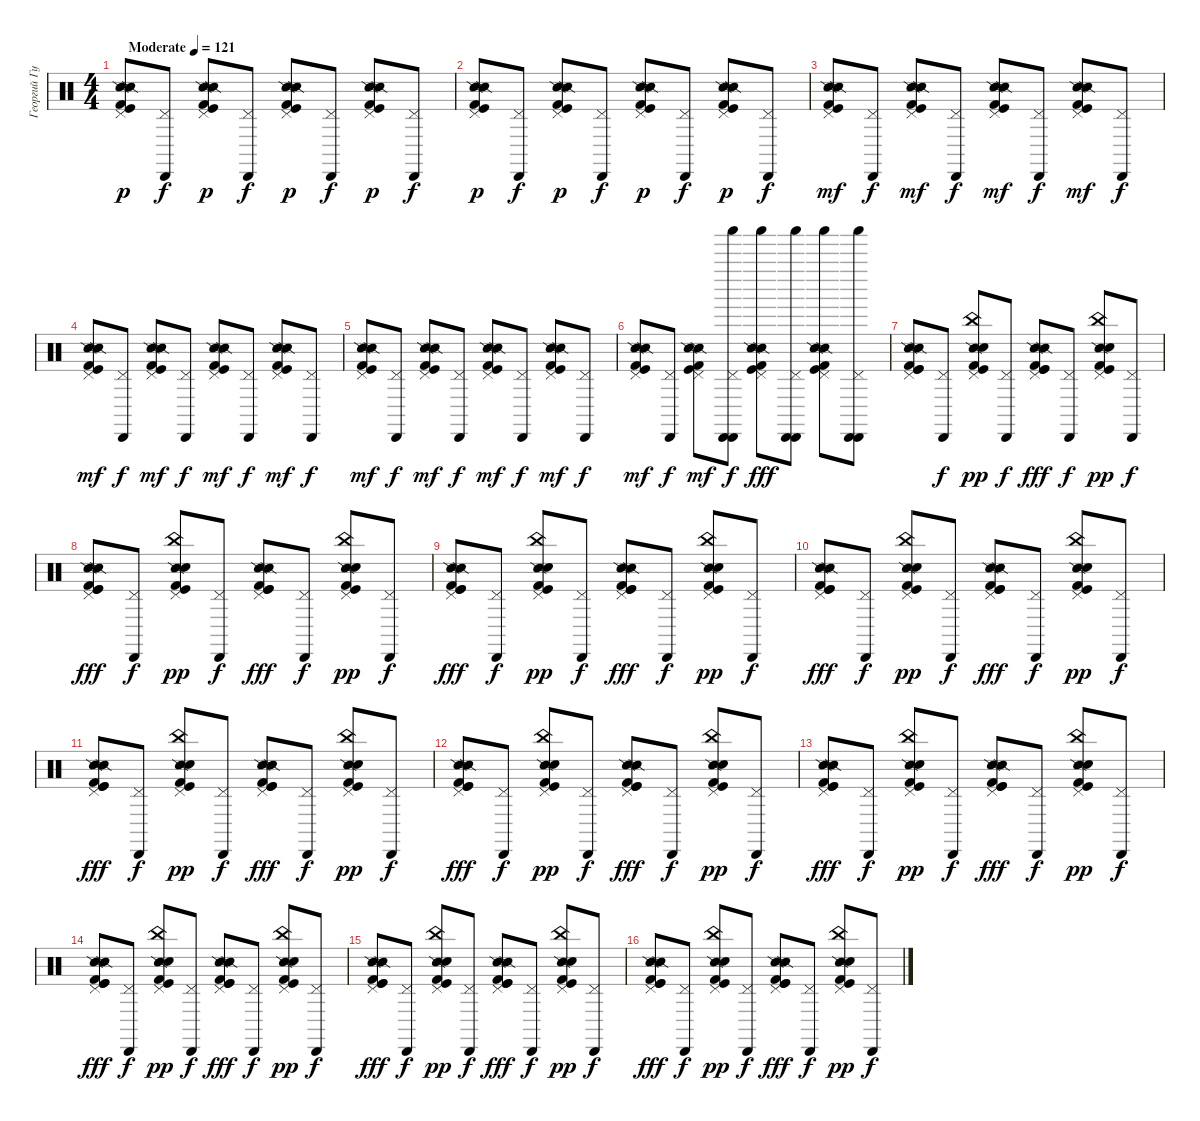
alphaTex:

\track ("Георгий Гурьянов" "Георгий Гу") {instrument percussion}
\staff {score}
\articulation defaults
\ts (4 4)
\tempo (121 "Moderate")
\clef neutral
\ks c
("Kick (hit)" "Kick (hit) 2" "Pedal Hi-Hat (hit)" "Snare (side stick) 2" "Snare (side stick) 2").8{dy p} ("Cabasa (hit)" "Pedal Hi-Hat (hit)").8{dy f} ("Kick (hit)" "Kick (hit) 2" "Pedal Hi-Hat (hit)" "Snare (side stick) 2" "Snare (side stick) 2").8{dy p} ("Cabasa (hit)" "Pedal Hi-Hat (hit)").8{dy f} ("Kick (hit)" "Kick (hit) 2" "Pedal Hi-Hat (hit)" "Snare (side stick) 2" "Snare (side stick) 2").8{dy p} ("Cabasa (hit)" "Pedal Hi-Hat (hit)").8{dy f} ("Kick (hit)" "Kick (hit) 2" "Pedal Hi-Hat (hit)" "Snare (side stick) 2" "Snare (side stick) 2").8{dy p} ("Cabasa (hit)" "Pedal Hi-Hat (hit)").8{dy f} |
("Kick (hit)" "Kick (hit) 2" "Pedal Hi-Hat (hit)" "Snare (side stick) 2" "Snare (side stick) 2").8{dy p} ("Cabasa (hit)" "Pedal Hi-Hat (hit)").8{dy f} ("Kick (hit)" "Kick (hit) 2" "Pedal Hi-Hat (hit)" "Snare (side stick) 2" "Snare (side stick) 2").8{dy p} ("Cabasa (hit)" "Pedal Hi-Hat (hit)").8{dy f} ("Kick (hit)" "Kick (hit) 2" "Pedal Hi-Hat (hit)" "Snare (side stick) 2" "Snare (side stick) 2").8{dy p} ("Cabasa (hit)" "Pedal Hi-Hat (hit)").8{dy f} ("Kick (hit)" "Kick (hit) 2" "Pedal Hi-Hat (hit)" "Snare (side stick) 2" "Snare (side stick) 2").8{dy p} ("Cabasa (hit)" "Pedal Hi-Hat (hit)").8{dy f} |
("Kick (hit)" "Kick (hit) 2" "Pedal Hi-Hat (hit)" "Snare (side stick) 2" "Snare (side stick) 2").8{dy mf} ("Cabasa (hit)" "Pedal Hi-Hat (hit)").8{dy f} ("Kick (hit)" "Kick (hit) 2" "Pedal Hi-Hat (hit)" "Snare (side stick) 2" "Snare (side stick) 2").8{dy mf} ("Cabasa (hit)" "Pedal Hi-Hat (hit)").8{dy f} ("Kick (hit)" "Kick (hit) 2" "Pedal Hi-Hat (hit)" "Snare (side stick) 2" "Snare (side stick) 2").8{dy mf} ("Cabasa (hit)" "Pedal Hi-Hat (hit)").8{dy f} ("Kick (hit)" "Kick (hit) 2" "Pedal Hi-Hat (hit)" "Snare (side stick) 2" "Snare (side stick) 2").8{dy mf} ("Cabasa (hit)" "Pedal Hi-Hat (hit)").8{dy f} |
("Kick (hit)" "Kick (hit) 2" "Pedal Hi-Hat (hit)" "Snare (side stick) 2" "Snare (side stick) 2").8{dy mf} ("Cabasa (hit)" "Pedal Hi-Hat (hit)").8{dy f} ("Kick (hit)" "Kick (hit) 2" "Pedal Hi-Hat (hit)" "Snare (side stick) 2" "Snare (side stick) 2").8{dy mf} ("Cabasa (hit)" "Pedal Hi-Hat (hit)").8{dy f} ("Kick (hit)" "Kick (hit) 2" "Pedal Hi-Hat (hit)" "Snare (side stick) 2" "Snare (side stick) 2").8{dy mf} ("Cabasa (hit)" "Pedal Hi-Hat (hit)").8{dy f} ("Kick (hit)" "Kick (hit) 2" "Pedal Hi-Hat (hit)" "Snare (side stick) 2" "Snare (side stick) 2").8{dy mf} ("Cabasa (hit)" "Pedal Hi-Hat (hit)").8{dy f} |
("Kick (hit)" "Kick (hit) 2" "Pedal Hi-Hat (hit)" "Snare (side stick) 2" "Snare (side stick) 2").8{dy mf} ("Cabasa (hit)" "Pedal Hi-Hat (hit)").8{dy f} ("Kick (hit)" "Kick (hit) 2" "Pedal Hi-Hat (hit)" "Snare (side stick) 2" "Snare (side stick) 2").8{dy mf} ("Cabasa (hit)" "Pedal Hi-Hat (hit)").8{dy f} ("Kick (hit)" "Kick (hit) 2" "Pedal Hi-Hat (hit)" "Snare (side stick) 2" "Snare (side stick) 2").8{dy mf} ("Cabasa (hit)" "Pedal Hi-Hat (hit)").8{dy f} ("Kick (hit)" "Kick (hit) 2" "Pedal Hi-Hat (hit)" "Snare (side stick) 2" "Snare (side stick) 2").8{dy mf} ("Cabasa (hit)" "Pedal Hi-Hat (hit)").8{dy f} |
("Kick (hit)" "Kick (hit) 2" "Pedal Hi-Hat (hit)" "Snare (side stick) 2" "Snare (side stick) 2").8{dy mf} ("Cabasa (hit)" "Pedal Hi-Hat (hit)").8{dy f} ("Kick (hit)" "Kick (hit) 2" "Pedal Hi-Hat (hit)" "Snare (side stick) 2" "Snare (side stick) 2").8{dy mf} ("Cabasa (hit)" "Pedal Hi-Hat (hit)" "Cabasa (hit)" "Shaker (hit)").8{dy f} ("Kick (hit)" "Kick (hit) 2" "Pedal Hi-Hat (hit)" "Snare (side stick) 2" "Snare (side stick) 2" "Shaker (hit)").8{dy fff} ("Cabasa (hit)" "Pedal Hi-Hat (hit)" "Cabasa (hit)" "Shaker (hit)").8 ("Kick (hit)" "Kick (hit) 2" "Pedal Hi-Hat (hit)" "Snare (side stick) 2" "Snare (side stick) 2" "Shaker (hit)").8 ("Cabasa (hit)" "Pedal Hi-Hat (hit)" "Cabasa (hit)" "Shaker (hit)").8 |
("Kick (hit)" "Kick (hit) 2" "Pedal Hi-Hat (hit)" "Snare (side stick) 2" "Snare (side stick) 2" "Kick (hit)").8 ("Cabasa (hit)" "Pedal Hi-Hat (hit)").8{dy f} ("Kick (hit)" "Kick (hit) 2" "Pedal Hi-Hat (hit)" "Snare (side stick) 2" "Hand Clap (hit)" "China (hit)").8{dy pp} ("Cabasa (hit)" "Pedal Hi-Hat (hit)").8{dy f} ("Kick (hit)" "Kick (hit) 2" "Pedal Hi-Hat (hit)" "Snare (side stick) 2" "Snare (side stick) 2" "Kick (hit)").8{dy fff} ("Cabasa (hit)" "Pedal Hi-Hat (hit)").8{dy f} ("Kick (hit)" "Kick (hit) 2" "Pedal Hi-Hat (hit)" "Snare (side stick) 2" "Hand Clap (hit)" "China (hit)").8{dy pp} ("Cabasa (hit)" "Pedal Hi-Hat (hit)").8{dy f} |
("Kick (hit)" "Kick (hit) 2" "Pedal Hi-Hat (hit)" "Snare (side stick) 2" "Snare (side stick) 2" "Kick (hit)").8{dy fff} ("Cabasa (hit)" "Pedal Hi-Hat (hit)").8{dy f} ("Kick (hit)" "Kick (hit) 2" "Pedal Hi-Hat (hit)" "Snare (side stick) 2" "Hand Clap (hit)" "China (hit)").8{dy pp} ("Cabasa (hit)" "Pedal Hi-Hat (hit)").8{dy f} ("Kick (hit)" "Kick (hit) 2" "Pedal Hi-Hat (hit)" "Snare (side stick) 2" "Snare (side stick) 2" "Kick (hit)").8{dy fff} ("Cabasa (hit)" "Pedal Hi-Hat (hit)").8{dy f} ("Kick (hit)" "Kick (hit) 2" "Pedal Hi-Hat (hit)" "Snare (side stick) 2" "Hand Clap (hit)" "China (hit)").8{dy pp} ("Cabasa (hit)" "Pedal Hi-Hat (hit)").8{dy f} |
("Kick (hit)" "Kick (hit) 2" "Pedal Hi-Hat (hit)" "Snare (side stick) 2" "Snare (side stick) 2" "Kick (hit)").8{dy fff} ("Cabasa (hit)" "Pedal Hi-Hat (hit)").8{dy f} ("Kick (hit)" "Kick (hit) 2" "Pedal Hi-Hat (hit)" "Snare (side stick) 2" "Hand Clap (hit)" "China (hit)").8{dy pp} ("Cabasa (hit)" "Pedal Hi-Hat (hit)").8{dy f} ("Kick (hit)" "Kick (hit) 2" "Pedal Hi-Hat (hit)" "Snare (side stick) 2" "Snare (side stick) 2" "Kick (hit)").8{dy fff} ("Cabasa (hit)" "Pedal Hi-Hat (hit)").8{dy f} ("Kick (hit)" "Kick (hit) 2" "Pedal Hi-Hat (hit)" "Snare (side stick) 2" "Hand Clap (hit)" "China (hit)").8{dy pp} ("Cabasa (hit)" "Pedal Hi-Hat (hit)").8{dy f} |
("Kick (hit)" "Kick (hit) 2" "Pedal Hi-Hat (hit)" "Snare (side stick) 2" "Snare (side stick) 2" "Kick (hit)").8{dy fff} ("Cabasa (hit)" "Pedal Hi-Hat (hit)").8{dy f} ("Kick (hit)" "Kick (hit) 2" "Pedal Hi-Hat (hit)" "Snare (side stick) 2" "Hand Clap (hit)" "China (hit)").8{dy pp} ("Cabasa (hit)" "Pedal Hi-Hat (hit)").8{dy f} ("Kick (hit)" "Kick (hit) 2" "Pedal Hi-Hat (hit)" "Snare (side stick) 2" "Snare (side stick) 2" "Kick (hit)").8{dy fff} ("Cabasa (hit)" "Pedal Hi-Hat (hit)").8{dy f} ("Kick (hit)" "Kick (hit) 2" "Pedal Hi-Hat (hit)" "Snare (side stick) 2" "Hand Clap (hit)" "China (hit)").8{dy pp} ("Cabasa (hit)" "Pedal Hi-Hat (hit)").8{dy f} |
("Kick (hit)" "Kick (hit) 2" "Pedal Hi-Hat (hit)" "Snare (side stick) 2" "Snare (side stick) 2" "Kick (hit)").8{dy fff} ("Cabasa (hit)" "Pedal Hi-Hat (hit)").8{dy f} ("Kick (hit)" "Kick (hit) 2" "Pedal Hi-Hat (hit)" "Snare (side stick) 2" "Hand Clap (hit)" "China (hit)").8{dy pp} ("Cabasa (hit)" "Pedal Hi-Hat (hit)").8{dy f} ("Kick (hit)" "Kick (hit) 2" "Pedal Hi-Hat (hit)" "Snare (side stick) 2" "Snare (side stick) 2" "Kick (hit)").8{dy fff} ("Cabasa (hit)" "Pedal Hi-Hat (hit)").8{dy f} ("Kick (hit)" "Kick (hit) 2" "Pedal Hi-Hat (hit)" "Snare (side stick) 2" "Hand Clap (hit)" "China (hit)").8{dy pp} ("Cabasa (hit)" "Pedal Hi-Hat (hit)").8{dy f} |
("Kick (hit)" "Kick (hit) 2" "Pedal Hi-Hat (hit)" "Snare (side stick) 2" "Snare (side stick) 2" "Kick (hit)").8{dy fff} ("Cabasa (hit)" "Pedal Hi-Hat (hit)").8{dy f} ("Kick (hit)" "Kick (hit) 2" "Pedal Hi-Hat (hit)" "Snare (side stick) 2" "Hand Clap (hit)" "China (hit)").8{dy pp} ("Cabasa (hit)" "Pedal Hi-Hat (hit)").8{dy f} ("Kick (hit)" "Kick (hit) 2" "Pedal Hi-Hat (hit)" "Snare (side stick) 2" "Snare (side stick) 2" "Kick (hit)").8{dy fff} ("Cabasa (hit)" "Pedal Hi-Hat (hit)").8{dy f} ("Kick (hit)" "Kick (hit) 2" "Pedal Hi-Hat (hit)" "Snare (side stick) 2" "Hand Clap (hit)" "China (hit)").8{dy pp} ("Cabasa (hit)" "Pedal Hi-Hat (hit)").8{dy f} |
("Kick (hit)" "Kick (hit) 2" "Pedal Hi-Hat (hit)" "Snare (side stick) 2" "Snare (side stick) 2" "Kick (hit)").8{dy fff} ("Cabasa (hit)" "Pedal Hi-Hat (hit)").8{dy f} ("Kick (hit)" "Kick (hit) 2" "Pedal Hi-Hat (hit)" "Snare (side stick) 2" "Hand Clap (hit)" "China (hit)").8{dy pp} ("Cabasa (hit)" "Pedal Hi-Hat (hit)").8{dy f} ("Kick (hit)" "Kick (hit) 2" "Pedal Hi-Hat (hit)" "Snare (side stick) 2" "Snare (side stick) 2" "Kick (hit)").8{dy fff} ("Cabasa (hit)" "Pedal Hi-Hat (hit)").8{dy f} ("Kick (hit)" "Kick (hit) 2" "Pedal Hi-Hat (hit)" "Snare (side stick) 2" "Hand Clap (hit)" "China (hit)").8{dy pp} ("Cabasa (hit)" "Pedal Hi-Hat (hit)").8{dy f} |
("Kick (hit)" "Kick (hit) 2" "Pedal Hi-Hat (hit)" "Snare (side stick) 2" "Snare (side stick) 2" "Kick (hit)").8{dy fff} ("Cabasa (hit)" "Pedal Hi-Hat (hit)").8{dy f} ("Kick (hit)" "Kick (hit) 2" "Pedal Hi-Hat (hit)" "Snare (side stick) 2" "Hand Clap (hit)" "China (hit)").8{dy pp} ("Cabasa (hit)" "Pedal Hi-Hat (hit)").8{dy f} ("Kick (hit)" "Kick (hit) 2" "Pedal Hi-Hat (hit)" "Snare (side stick) 2" "Snare (side stick) 2" "Kick (hit)").8{dy fff} ("Cabasa (hit)" "Pedal Hi-Hat (hit)").8{dy f} ("Kick (hit)" "Kick (hit) 2" "Pedal Hi-Hat (hit)" "Snare (side stick) 2" "Hand Clap (hit)" "China (hit)").8{dy pp} ("Cabasa (hit)" "Pedal Hi-Hat (hit)").8{dy f} |
("Kick (hit)" "Kick (hit) 2" "Pedal Hi-Hat (hit)" "Snare (side stick) 2" "Snare (side stick) 2" "Kick (hit)").8{dy fff} ("Cabasa (hit)" "Pedal Hi-Hat (hit)").8{dy f} ("Kick (hit)" "Kick (hit) 2" "Pedal Hi-Hat (hit)" "Snare (side stick) 2" "Hand Clap (hit)" "China (hit)").8{dy pp} ("Cabasa (hit)" "Pedal Hi-Hat (hit)").8{dy f} ("Kick (hit)" "Kick (hit) 2" "Pedal Hi-Hat (hit)" "Snare (side stick) 2" "Snare (side stick) 2" "Kick (hit)").8{dy fff} ("Cabasa (hit)" "Pedal Hi-Hat (hit)").8{dy f} ("Kick (hit)" "Kick (hit) 2" "Pedal Hi-Hat (hit)" "Snare (side stick) 2" "Hand Clap (hit)" "China (hit)").8{dy pp} ("Cabasa (hit)" "Pedal Hi-Hat (hit)").8{dy f} |
("Kick (hit)" "Kick (hit) 2" "Pedal Hi-Hat (hit)" "Snare (side stick) 2" "Snare (side stick) 2" "Kick (hit)").8{dy fff} ("Cabasa (hit)" "Pedal Hi-Hat (hit)").8{dy f} ("Kick (hit)" "Kick (hit) 2" "Pedal Hi-Hat (hit)" "Snare (side stick) 2" "Hand Clap (hit)" "China (hit)").8{dy pp} ("Cabasa (hit)" "Pedal Hi-Hat (hit)").8{dy f} ("Kick (hit)" "Kick (hit) 2" "Pedal Hi-Hat (hit)" "Snare (side stick) 2" "Snare (side stick) 2" "Kick (hit)").8{dy fff} ("Cabasa (hit)" "Pedal Hi-Hat (hit)").8{dy f} ("Kick (hit)" "Kick (hit) 2" "Pedal Hi-Hat (hit)" "Snare (side stick) 2" "Hand Clap (hit)" "China (hit)").8{dy pp} ("Cabasa (hit)" "Pedal Hi-Hat (hit)").8{dy f}
